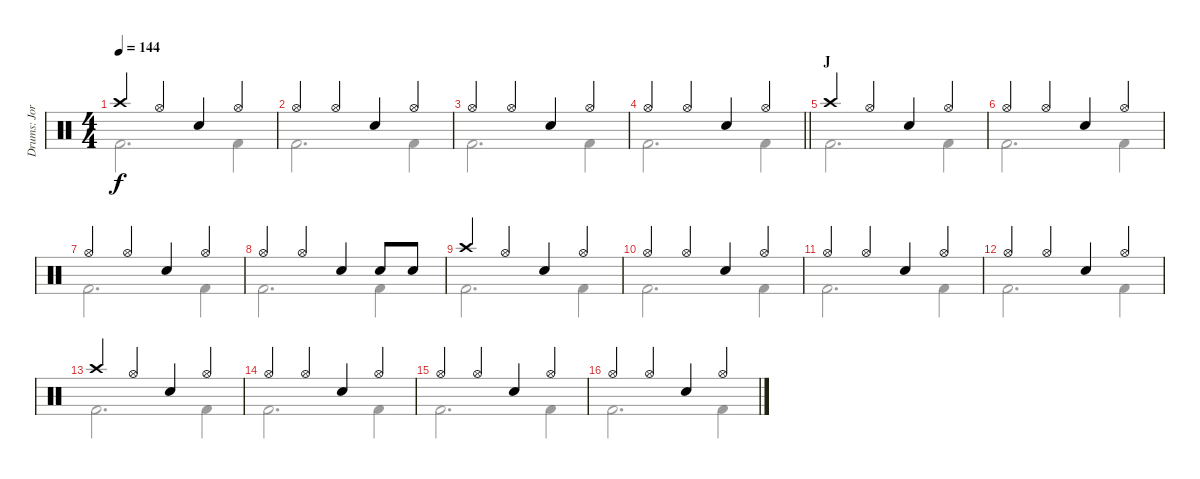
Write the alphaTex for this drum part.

\track ("Drums: Jorg" "Drums: Jor") {instrument percussion}
\staff {score}
\articulation defaults
\voice
\ts (4 4)
\tempo 144
\clef neutral
\ks c "Crash high (hit)".4{dy f} "Hi-Hat (open)".4 "Snare (hit) 2".4 "Hi-Hat (open)".4
|
"Hi-Hat (open)".4 "Hi-Hat (open)".4 "Snare (hit) 2".4 "Hi-Hat (open)".4 |
"Hi-Hat (open)".4 "Hi-Hat (open)".4 "Snare (hit) 2".4 "Hi-Hat (open)".4 |
\barLineRight lightlight "Hi-Hat (open)".4 "Hi-Hat (open)".4 "Snare (hit) 2".4 "Hi-Hat (open)".4
|
\section ("" "J")
"Crash high (hit)".4 "Hi-Hat (open)".4 "Snare (hit) 2".4 "Hi-Hat (open)".4 |
"Hi-Hat (open)".4 "Hi-Hat (open)".4 "Snare (hit) 2".4 "Hi-Hat (open)".4 |
"Hi-Hat (open)".4 "Hi-Hat (open)".4 "Snare (hit) 2".4 "Hi-Hat (open)".4 |
"Hi-Hat (open)".4 "Hi-Hat (open)".4 "Snare (hit) 2".4 "Electric Snare (hit)".8 "Snare (hit) 2".8 |
"Crash high (hit)".4 "Hi-Hat (open)".4 "Snare (hit) 2".4 "Hi-Hat (open)".4 |
"Hi-Hat (open)".4 "Hi-Hat (open)".4 "Snare (hit) 2".4 "Hi-Hat (open)".4 |
"Hi-Hat (open)".4 "Hi-Hat (open)".4 "Snare (hit) 2".4 "Hi-Hat (open)".4 |
"Hi-Hat (open)".4 "Hi-Hat (open)".4 "Snare (hit) 2".4 "Hi-Hat (open)".4 |
"Crash high (hit)".4 "Hi-Hat (open)".4 "Snare (hit) 2".4 "Hi-Hat (open)".4 |
"Hi-Hat (open)".4 "Hi-Hat (open)".4 "Snare (hit) 2".4 "Hi-Hat (open)".4 |
"Hi-Hat (open)".4 "Hi-Hat (open)".4 "Snare (hit) 2".4 "Hi-Hat (open)".4 |
"Hi-Hat (open)".4 "Hi-Hat (open)".4 "Snare (hit) 2".4 "Hi-Hat (open)".4
\voice
\clef neutral
\ottava regular
\simile none
\ks c "Kick (hit) 2".2{d dy f} "Kick (hit) 2".4
|
"Kick (hit) 2".2{d} "Kick (hit) 2".4 |
"Kick (hit) 2".2{d} "Kick (hit) 2".4 |
\barLineRight lightlight "Kick (hit) 2".2{d} "Kick (hit) 2".4
|
"Kick (hit) 2".2{d} "Kick (hit) 2".4 |
"Kick (hit) 2".2{d} "Kick (hit) 2".4 |
"Kick (hit) 2".2{d} "Kick (hit) 2".4 |
"Kick (hit) 2".2{d} "Kick (hit) 2".4 |
"Kick (hit) 2".2{d} "Kick (hit) 2".4 |
"Kick (hit) 2".2{d} "Kick (hit) 2".4 |
"Kick (hit) 2".2{d} "Kick (hit) 2".4 |
"Kick (hit) 2".2{d} "Kick (hit) 2".4 |
"Kick (hit) 2".2{d} "Kick (hit) 2".4 |
"Kick (hit) 2".2{d} "Kick (hit) 2".4 |
"Kick (hit) 2".2{d} "Kick (hit) 2".4 |
"Kick (hit) 2".2{d} "Kick (hit) 2".4
